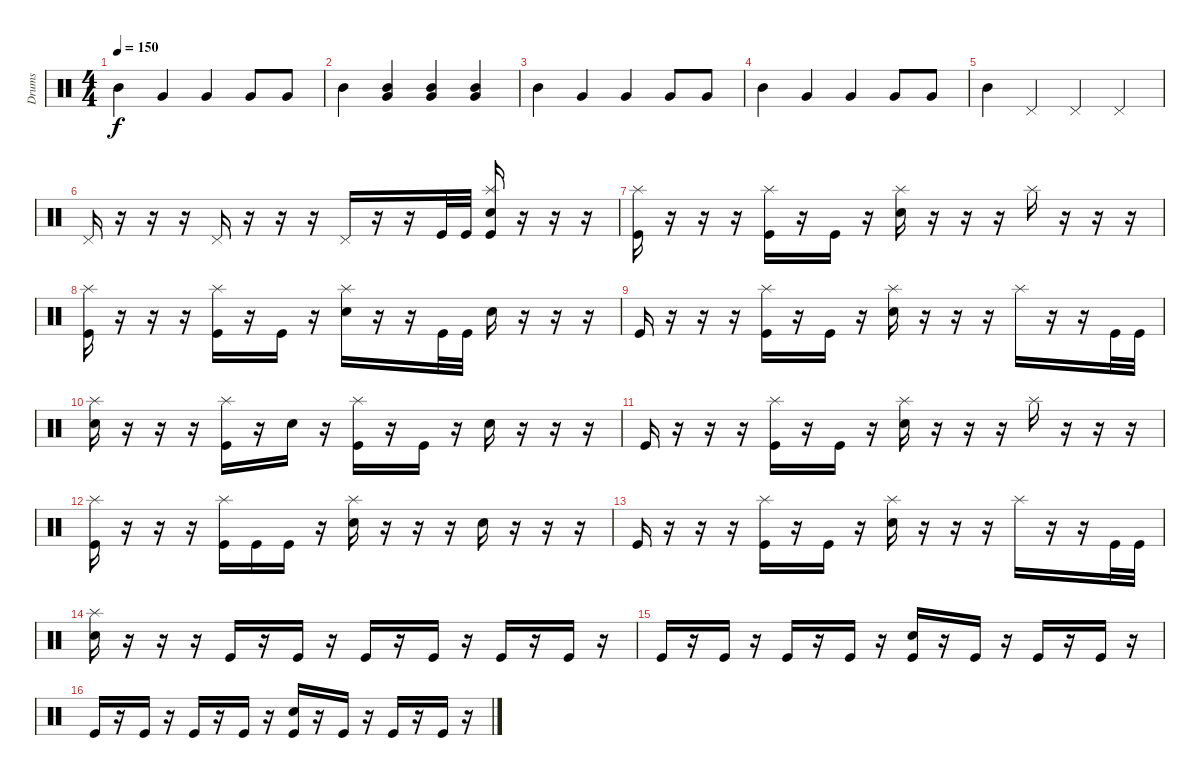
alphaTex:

\track ("Drums" "Drums") {instrument percussion}
\staff
\articulation defaults
\ts (4 4)
\tempo 150
\clef neutral
\ks c "Mid Tom (hit)".4{dy f} "Very Low Tom (hit)".4 "Very Low Tom (hit)".4 "Very Low Tom (hit)".8 "Very Low Tom (hit)".8
|
"Mid Tom (hit)".4 ("Mid Tom (hit)" "Very Low Tom (hit)").4 ("Mid Tom (hit)" "Very Low Tom (hit)").4 ("Mid Tom (hit)" "Very Low Tom (hit)").4 |
"Mid Tom (hit)".4 "Very Low Tom (hit)".4 "Very Low Tom (hit)".4 "Very Low Tom (hit)".8 "Very Low Tom (hit)".8 |
"Mid Tom (hit)".4 "Very Low Tom (hit)".4 "Very Low Tom (hit)".4 "Very Low Tom (hit)".8 "Very Low Tom (hit)".8 |
"Mid Tom (hit)".4 "Pedal Hi-Hat (hit)".4 "Pedal Hi-Hat (hit)".4 "Pedal Hi-Hat (hit)".4 |
"Pedal Hi-Hat (hit)".16 r.16 r.16 r.16 "Pedal Hi-Hat (hit)".16 r.16 r.16 r.16 "Pedal Hi-Hat (hit)".16 r.16 r.16 "Kick (hit)".32 "Kick (hit)".32 ("Splash (hit)" "Snare (hit) 2" "Kick (hit)").16 r.16 r.16 r.16 |
("Splash (hit)" "Kick (hit)").16 r.16 r.16 r.16 ("Splash (hit)" "Kick (hit)").16 r.16 "Kick (hit)".16 r.16 ("Splash (hit)" "Snare (hit) 2").16 r.16 r.16 r.16 "Splash (hit)".16 r.16 r.16 r.16 |
("Splash (hit)" "Kick (hit)").16 r.16 r.16 r.16 ("Splash (hit)" "Kick (hit)").16 r.16 "Kick (hit)".16 r.16 ("Splash (hit)" "Snare (hit) 2").16 r.16 r.16 "Kick (hit)".32 "Kick (hit)".32 "Snare (hit) 2".16 r.16 r.16 r.16 |
"Kick (hit)".16 r.16 r.16 r.16 ("Splash (hit)" "Kick (hit)").16 r.16 "Kick (hit)".16 r.16 ("Splash (hit)" "Snare (hit) 2").16 r.16 r.16 r.16 "Splash (hit)".16 r.16 r.16 "Kick (hit)".32 "Kick (hit)".32 |
("Splash (hit)" "Snare (hit) 2").16 r.16 r.16 r.16 ("Splash (hit)" "Kick (hit)").16 r.16 "Snare (hit) 2".16 r.16 ("Splash (hit)" "Kick (hit)").16 r.16 "Kick (hit)".16 r.16 "Snare (hit) 2".16 r.16 r.16 r.16 |
"Kick (hit)".16 r.16 r.16 r.16 ("Splash (hit)" "Kick (hit)").16 r.16 "Kick (hit)".16 r.16 ("Splash (hit)" "Snare (hit) 2").16 r.16 r.16 r.16 "Splash (hit)".16 r.16 r.16 r.16 |
("Splash (hit)" "Kick (hit)").16 r.16 r.16 r.16 ("Splash (hit)" "Kick (hit)").16 "Kick (hit)".16 "Kick (hit)".16 r.16 ("Splash (hit)" "Snare (hit) 2").16 r.16 r.16 r.16 "Snare (hit) 2".16 r.16 r.16 r.16 |
"Kick (hit)".16 r.16 r.16 r.16 ("Splash (hit)" "Kick (hit)").16 r.16 "Kick (hit)".16 r.16 ("Splash (hit)" "Snare (hit) 2").16 r.16 r.16 r.16 "Splash (hit)".16 r.16 r.16 "Kick (hit)".32 "Kick (hit)".32 |
("Splash (hit)" "Snare (hit) 2").16 r.16 r.16 r.16 "Kick (hit)".16 r.16 "Kick (hit)".16 r.16 "Kick (hit)".16 r.16 "Kick (hit)".16 r.16 "Kick (hit)".16 r.16 "Kick (hit)".16 r.16 |
"Kick (hit)".16 r.16 "Kick (hit)".16 r.16 "Kick (hit)".16 r.16 "Kick (hit)".16 r.16 ("Snare (hit) 2" "Kick (hit)").16 r.16 "Kick (hit)".16 r.16 "Kick (hit)".16 r.16 "Kick (hit)".16 r.16 |
"Kick (hit)".16 r.16 "Kick (hit)".16 r.16 "Kick (hit)".16 r.16 "Kick (hit)".16 r.16 ("Snare (hit) 2" "Kick (hit)").16 r.16 "Kick (hit)".16 r.16 "Kick (hit)".16 r.16 "Kick (hit)".16 r.16
